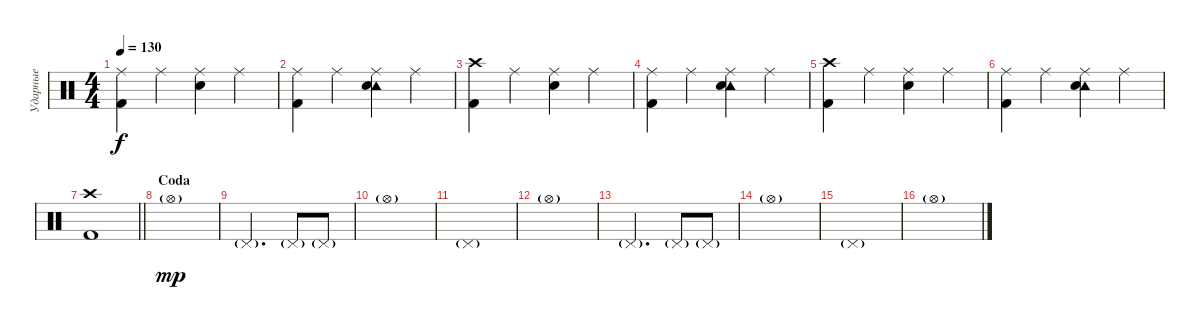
\track ("Ударные" "Ударные") {instrument percussion}
\staff {score}
\articulation defaults
\ts (4 4)
\tempo 130
\clef neutral
\ks c
("Ride (middle)" "Kick (hit) 2").4{dy f} "Ride (middle)".4 ("Ride (middle)" "Electric Snare (hit)").4 "Ride (middle)".4 |
("Ride (middle)" "Kick (hit) 2").4 "Ride (middle)".4 ("Tambourine (hit)" "Ride (middle)" "Electric Snare (hit)").4 "Ride (middle)".4 |
("Crash high (hit)" "Kick (hit) 2").4 "Ride (middle)".4 ("Ride (middle)" "Electric Snare (hit)").4 "Ride (middle)".4 |
("Ride (middle)" "Kick (hit) 2").4 "Ride (middle)".4 ("Tambourine (hit)" "Ride (middle)" "Electric Snare (hit)").4 "Ride (middle)".4 |
("Crash high (hit)" "Kick (hit) 2").4 "Ride (middle)".4 ("Ride (middle)" "Electric Snare (hit)").4 "Ride (middle)".4 |
("Ride (middle)" "Kick (hit) 2").4 "Ride (middle)".4 ("Tambourine (hit)" "Ride (middle)" "Electric Snare (hit)").4 "Ride (middle)".4 |
\barLineRight lightlight
("Crash high (hit)" "Kick (hit) 2").1 |
\section ("" "Coda")
"Hi-Hat (open)"{g}.1{dy mp} |
"Pedal Hi-Hat (hit)"{g}.2{d} "Pedal Hi-Hat (hit)"{g}.8 "Pedal Hi-Hat (hit)"{g}.8 |
"Hi-Hat (open)"{g}.1 |
"Pedal Hi-Hat (hit)"{g}.1 |
"Hi-Hat (open)"{g}.1 |
"Pedal Hi-Hat (hit)"{g}.2{d} "Pedal Hi-Hat (hit)"{g}.8 "Pedal Hi-Hat (hit)"{g}.8 |
"Hi-Hat (open)"{g}.1 |
"Pedal Hi-Hat (hit)"{g}.1 |
"Hi-Hat (open)"{g}.1
